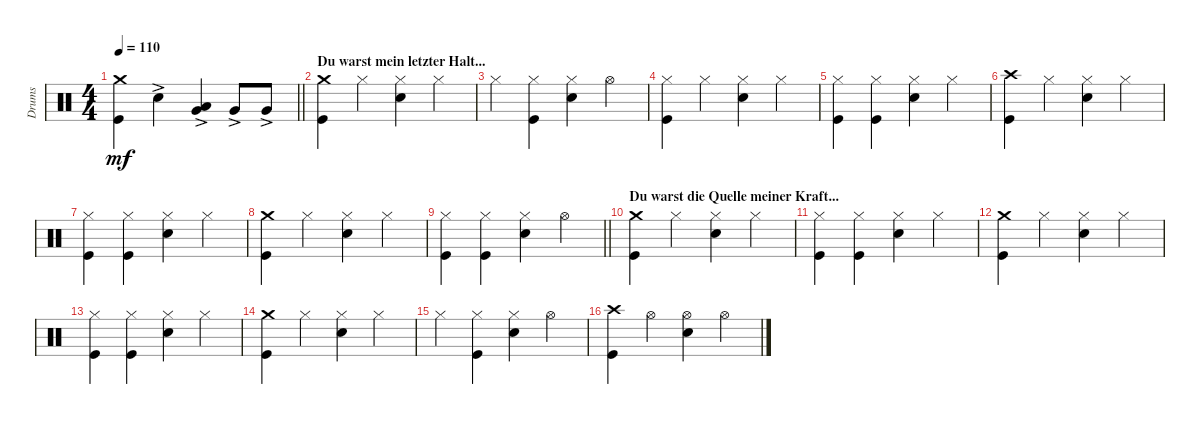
\track ("Drums" "Drums") {instrument percussion}
\staff {score}
\articulation defaults
\ts (4 4)
\tempo 110
\clef neutral
\barLineRight lightlight
\ks c
("Crash medium (hit)" "Kick (hit)").4{dy mf} "Snare (hit) 2"{ac}.4 ("Low Tom (hit)"{ac} "Very Low Tom (hit)"{ac}).4 "Very Low Tom (hit)"{ac}.8 "Very Low Tom (hit)"{ac}.8 |
\section ("" "Du warst mein letzter Halt...")
("Crash medium (hit)" "Kick (hit)").4 "Hi-Hat (closed)".4 ("Hi-Hat (closed)" "Snare (hit) 2").4 "Hi-Hat (closed)".4 |
"Hi-Hat (closed)".4 ("Hi-Hat (closed)" "Kick (hit)").4 ("Hi-Hat (closed)" "Snare (hit) 2").4 "Hi-Hat (open)".4 |
("Hi-Hat (closed)" "Kick (hit)").4 "Hi-Hat (closed)".4 ("Hi-Hat (closed)" "Snare (hit) 2").4 "Hi-Hat (closed)".4 |
("Hi-Hat (closed)" "Kick (hit)").4 ("Hi-Hat (closed)" "Kick (hit)").4 ("Hi-Hat (closed)" "Snare (hit) 2").4 "Hi-Hat (closed)".4 |
("Crash high (hit)" "Kick (hit)").4 "Hi-Hat (closed)".4 ("Hi-Hat (closed)" "Snare (hit) 2").4 "Hi-Hat (closed)".4 |
("Hi-Hat (closed)" "Kick (hit)").4 ("Hi-Hat (closed)" "Kick (hit)").4 ("Hi-Hat (closed)" "Snare (hit) 2").4 "Hi-Hat (closed)".4 |
("Crash medium (hit)" "Kick (hit)").4 "Hi-Hat (closed)".4 ("Hi-Hat (closed)" "Snare (hit) 2").4 "Hi-Hat (closed)".4 |
\barLineRight lightlight
("Hi-Hat (closed)" "Kick (hit)").4 ("Hi-Hat (closed)" "Kick (hit)").4 ("Hi-Hat (closed)" "Snare (hit) 2").4 "Hi-Hat (open)".4 |
\section ("" "Du warst die Quelle meiner Kraft...")
("Crash medium (hit)" "Kick (hit)").4 "Hi-Hat (closed)".4 ("Hi-Hat (closed)" "Snare (hit) 2").4 "Hi-Hat (closed)".4 |
("Hi-Hat (closed)" "Kick (hit)").4 ("Hi-Hat (closed)" "Kick (hit)").4 ("Hi-Hat (closed)" "Snare (hit) 2").4 "Hi-Hat (closed)".4 |
("Crash medium (hit)" "Kick (hit)").4 "Hi-Hat (closed)".4 ("Hi-Hat (closed)" "Snare (hit) 2").4 "Hi-Hat (closed)".4 |
("Hi-Hat (closed)" "Kick (hit)").4 ("Hi-Hat (closed)" "Kick (hit)").4 ("Hi-Hat (closed)" "Snare (hit) 2").4 "Hi-Hat (closed)".4 |
("Crash medium (hit)" "Kick (hit)").4 "Hi-Hat (closed)".4 ("Hi-Hat (closed)" "Snare (hit) 2").4 "Hi-Hat (closed)".4 |
"Hi-Hat (closed)".4 ("Hi-Hat (closed)" "Kick (hit)").4 ("Hi-Hat (closed)" "Snare (hit) 2").4 "Hi-Hat (open)".4 |
("Crash high (hit)" "Kick (hit)").4 "Hi-Hat (open)".4 ("Hi-Hat (open)" "Snare (hit) 2").4 "Hi-Hat (open)".4
